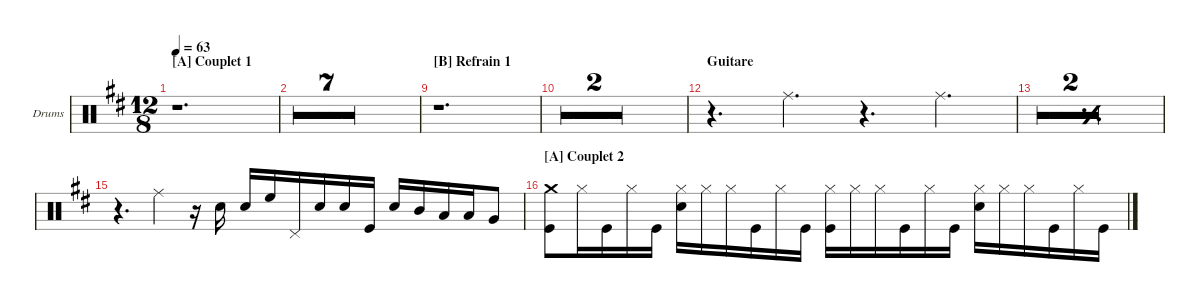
\defaultSystemsLayout 4
\hideDynamics
\bracketExtendMode groupsimilarinstruments
\firstSystemTrackNameOrientation horizontal
\otherSystemsTrackNameOrientation horizontal
\track ("Batterie" "Drums") {multiBarRest instrument percussion}
\staff {score}
\articulation defaults
\ts (12 8)
\section ("A" "Couplet 1")
\tempo 63
\clef neutral
\ks d
r.1{d dy mf} |
r.1{d} |
r.1{d} |
r.1{d} |
r.1{d} |
r.1{d} |
r.1{d} |
r.1{d} |
\section ("B" "Refrain 1")
r.1{d} |
r.1{d} |
r.1{d} |
\section ("" "Guitare")
r.4{d} "Ride (middle)".4{d} r.4{d} "Ride (middle)".4{d} |
\simile simple
|
|
\simile none
r.4{d} "Ride (middle)".4 r.16 "Snare (hit) 2".16 "Snare (hit) 2".16 "High Floor Tom (hit)".16 "Pedal Hi-Hat (hit)".16 "Snare (hit) 2".16 "Snare (hit) 2".16 "Kick (hit)".16 "Snare (hit) 2".16 "Mid Tom (hit)".16 "Low Tom (hit)".16 "Low Tom (hit)".16 "Very Low Tom (hit)".8 |
\section ("A" "Couplet 2")
("Kick (hit)" "Crash medium (hit)").8 "Hi-Hat (closed)".16 "Kick (hit)".16 "Hi-Hat (closed)".16 "Kick (hit)".16 ("Snare (hit) 2" "Hi-Hat (closed)").16 "Hi-Hat (closed)".16 "Hi-Hat (closed)".16 "Kick (hit)".16 "Hi-Hat (closed)".16 "Kick (hit)".16 ("Kick (hit)" "Hi-Hat (closed)").16 "Hi-Hat (closed)".16 "Hi-Hat (closed)".16 "Kick (hit)".16 "Hi-Hat (closed)".16 "Kick (hit)".16 ("Snare (hit) 2" "Hi-Hat (closed)").16 "Hi-Hat (closed)".16 "Hi-Hat (closed)".16 "Kick (hit)".16 "Hi-Hat (closed)".16 "Kick (hit)".16
